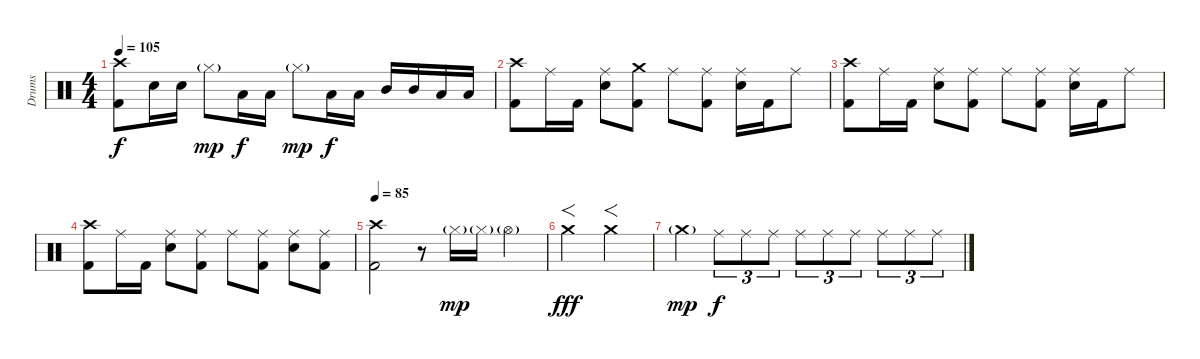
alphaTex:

\track ("Drums" "Drums") {instrument percussion}
\staff {score}
\articulation defaults
\ts (4 4)
\tempo 105
\clef neutral
\ks c
("Crash high (hit)" "Kick (hit) 2").8{dy f} "Electric Snare (hit)".16 "Electric Snare (hit)".16 "Hi-Hat (closed)"{g}.8{dy mp} "Low Tom (hit)".16{dy f} "Low Tom (hit)".16 "Hi-Hat (closed)"{g}.8{dy mp} "Low Tom (hit)".16{dy f} "Low Tom (hit)".16 "Mid Tom (hit)".16 "Mid Tom (hit)".16 "Low Tom (hit)".16 "Low Tom (hit)".16 |
("Crash high (hit)" "Kick (hit) 2").8 "Ride (middle)".16 "Kick (hit) 2".16 ("Ride (middle)" "Electric Snare (hit)").8 ("Crash medium (hit)" "Kick (hit) 2").8 "Ride (middle)".8 ("Ride (middle)" "Kick (hit) 2").8 ("Ride (middle)" "Electric Snare (hit)").16 "Kick (hit) 2".16 "Ride (middle)".8 |
("Crash high (hit)" "Kick (hit) 2").8 "Ride (middle)".16 "Kick (hit) 2".16 ("Ride (middle)" "Electric Snare (hit)").8 ("Ride (middle)" "Kick (hit) 2").8 "Ride (middle)".8 ("Ride (middle)" "Kick (hit) 2").8 ("Ride (middle)" "Electric Snare (hit)").16 "Kick (hit) 2".16 "Ride (middle)".8 |
("Crash high (hit)" "Kick (hit) 2").8 "Ride (middle)".16 "Kick (hit) 2".16 ("Ride (middle)" "Electric Snare (hit)").8 ("Ride (middle)" "Kick (hit) 2").8 "Ride (middle)".8 ("Ride (middle)" "Kick (hit) 2").8 ("Ride (middle)" "Electric Snare (hit)").8 ("Ride (middle)" "Kick (hit) 2").8 |
\tempo 85
("Crash high (hit)" "Kick (hit) 2").2 r.8 "Hi-Hat (closed)"{g}.16{dy mp} "Hi-Hat (closed)"{g}.16 "Hi-Hat (open)"{g}.4 |
"Crash medium (hit)".2{f dy fff} "Crash medium (hit)".2{f} |
"Crash medium (hit)"{g}.4{dy mp} "Ride (middle)".8{tu (3 2) dy f} "Ride (middle)".8{tu (3 2)} "Ride (middle)".8{tu (3 2)} "Ride (middle)".8{tu (3 2)} "Ride (middle)".8{tu (3 2)} "Ride (middle)".8{tu (3 2)} "Ride (middle)".8{tu (3 2)} "Ride (middle)".8{tu (3 2)} "Ride (middle)".8{tu (3 2)}
